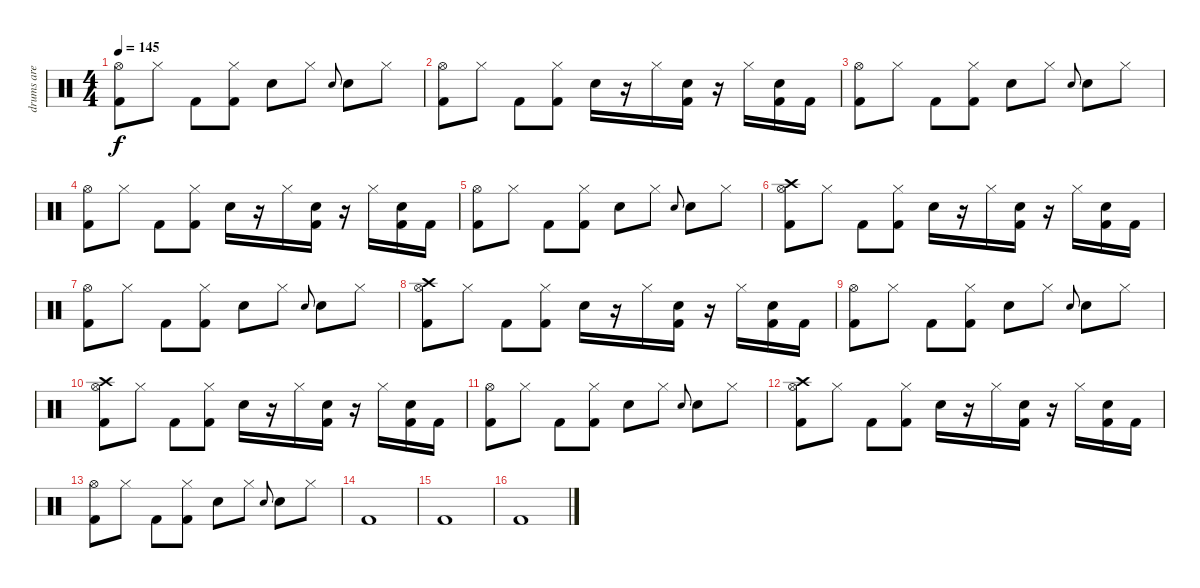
\track ("drums are cool   >.<" "drums are ") {instrument percussion}
\staff {score}
\articulation defaults
\ts (4 4)
\tempo 145
\clef neutral
\ks c
("Hi-Hat (open)" "Kick (hit) 2").8{dy f} "Hi-Hat (closed)".8 "Kick (hit) 2".8 ("Hi-Hat (closed)" "Kick (hit) 2").8 "Snare (hit) 2".8 "Hi-Hat (closed)".8 "Snare (hit) 2".8{gr onbeat} "Snare (hit) 2".8 "Hi-Hat (closed)".8 |
("Hi-Hat (open)" "Kick (hit) 2").8 "Hi-Hat (closed)".8 "Kick (hit) 2".8 ("Hi-Hat (closed)" "Kick (hit) 2").8 "Snare (hit) 2".16 r.16 "Hi-Hat (closed)".16 ("Snare (hit) 2" "Kick (hit) 2").16 r.16 "Hi-Hat (closed)".16 ("Snare (hit) 2" "Kick (hit) 2").16 "Kick (hit) 2".16 |
("Hi-Hat (open)" "Kick (hit) 2").8 "Hi-Hat (closed)".8 "Kick (hit) 2".8 ("Hi-Hat (closed)" "Kick (hit) 2").8 "Snare (hit) 2".8 "Hi-Hat (closed)".8 "Snare (hit) 2".8{gr onbeat} "Snare (hit) 2".8 "Hi-Hat (closed)".8 |
("Hi-Hat (open)" "Kick (hit) 2").8 "Hi-Hat (closed)".8 "Kick (hit) 2".8 ("Hi-Hat (closed)" "Kick (hit) 2").8 "Snare (hit) 2".16 r.16 "Hi-Hat (closed)".16 ("Snare (hit) 2" "Kick (hit) 2").16 r.16 "Hi-Hat (closed)".16 ("Snare (hit) 2" "Kick (hit) 2").16 "Kick (hit) 2".16 |
("Hi-Hat (open)" "Kick (hit) 2").8 "Hi-Hat (closed)".8 "Kick (hit) 2".8 ("Hi-Hat (closed)" "Kick (hit) 2").8 "Snare (hit) 2".8 "Hi-Hat (closed)".8 "Snare (hit) 2".8{gr onbeat} "Snare (hit) 2".8 "Hi-Hat (closed)".8 |
("Crash high (hit)" "Hi-Hat (open)" "Kick (hit) 2").8 "Hi-Hat (closed)".8 "Kick (hit) 2".8 ("Hi-Hat (closed)" "Kick (hit) 2").8 "Snare (hit) 2".16 r.16 "Hi-Hat (closed)".16 ("Snare (hit) 2" "Kick (hit) 2").16 r.16 "Hi-Hat (closed)".16 ("Snare (hit) 2" "Kick (hit) 2").16 "Kick (hit) 2".16 |
("Hi-Hat (open)" "Kick (hit) 2").8 "Hi-Hat (closed)".8 "Kick (hit) 2".8 ("Hi-Hat (closed)" "Kick (hit) 2").8 "Snare (hit) 2".8 "Hi-Hat (closed)".8 "Snare (hit) 2".8{gr onbeat} "Snare (hit) 2".8 "Hi-Hat (closed)".8 |
("Crash high (hit)" "Hi-Hat (open)" "Kick (hit) 2").8 "Hi-Hat (closed)".8 "Kick (hit) 2".8 ("Hi-Hat (closed)" "Kick (hit) 2").8 "Snare (hit) 2".16 r.16 "Hi-Hat (closed)".16 ("Snare (hit) 2" "Kick (hit) 2").16 r.16 "Hi-Hat (closed)".16 ("Snare (hit) 2" "Kick (hit) 2").16 "Kick (hit) 2".16 |
("Hi-Hat (open)" "Kick (hit) 2").8 "Hi-Hat (closed)".8 "Kick (hit) 2".8 ("Hi-Hat (closed)" "Kick (hit) 2").8 "Snare (hit) 2".8 "Hi-Hat (closed)".8 "Snare (hit) 2".8{gr onbeat} "Snare (hit) 2".8 "Hi-Hat (closed)".8 |
("Crash high (hit)" "Hi-Hat (open)" "Kick (hit) 2").8 "Hi-Hat (closed)".8 "Kick (hit) 2".8 ("Hi-Hat (closed)" "Kick (hit) 2").8 "Snare (hit) 2".16 r.16 "Hi-Hat (closed)".16 ("Snare (hit) 2" "Kick (hit) 2").16 r.16 "Hi-Hat (closed)".16 ("Snare (hit) 2" "Kick (hit) 2").16 "Kick (hit) 2".16 |
("Hi-Hat (open)" "Kick (hit) 2").8 "Hi-Hat (closed)".8 "Kick (hit) 2".8 ("Hi-Hat (closed)" "Kick (hit) 2").8 "Snare (hit) 2".8 "Hi-Hat (closed)".8 "Snare (hit) 2".8{gr onbeat} "Snare (hit) 2".8 "Hi-Hat (closed)".8 |
("Crash high (hit)" "Hi-Hat (open)" "Kick (hit) 2").8 "Hi-Hat (closed)".8 "Kick (hit) 2".8 ("Hi-Hat (closed)" "Kick (hit) 2").8 "Snare (hit) 2".16 r.16 "Hi-Hat (closed)".16 ("Snare (hit) 2" "Kick (hit) 2").16 r.16 "Hi-Hat (closed)".16 ("Snare (hit) 2" "Kick (hit) 2").16 "Kick (hit) 2".16 |
("Hi-Hat (open)" "Kick (hit) 2").8 "Hi-Hat (closed)".8 "Kick (hit) 2".8 ("Hi-Hat (closed)" "Kick (hit) 2").8 "Snare (hit) 2".8 "Hi-Hat (closed)".8 "Snare (hit) 2".8{gr onbeat} "Snare (hit) 2".8 "Hi-Hat (closed)".8 |
"Kick (hit) 2".1 |
"Kick (hit) 2".1 |
"Kick (hit) 2".1
